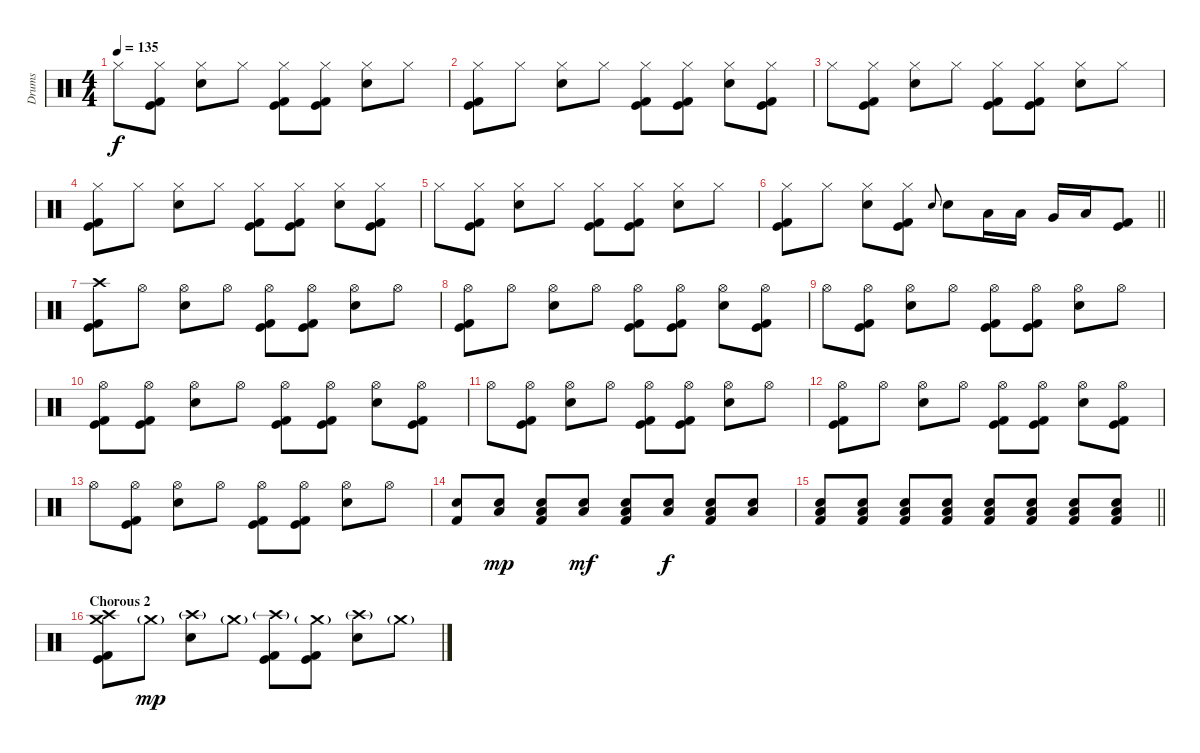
\track ("Drums" "Drums") {instrument percussion}
\staff {score}
\articulation defaults
\ts (4 4)
\tempo 135
\clef neutral
\ks c "Hi-Hat (closed)".8{dy f}
("Hi-Hat (closed)" "Kick (hit)" "Kick (hit) 2").8 ("Hi-Hat (closed)" "Electric Snare (hit)").8 "Hi-Hat (closed)".8 ("Hi-Hat (closed)" "Kick (hit)" "Kick (hit) 2").8 ("Hi-Hat (closed)" "Kick (hit)" "Kick (hit) 2").8 ("Hi-Hat (closed)" "Electric Snare (hit)").8 "Hi-Hat (closed)".8 |
("Hi-Hat (closed)" "Kick (hit)" "Kick (hit) 2").8 "Hi-Hat (closed)".8 ("Hi-Hat (closed)" "Electric Snare (hit)").8 "Hi-Hat (closed)".8 ("Hi-Hat (closed)" "Kick (hit)" "Kick (hit) 2").8 ("Hi-Hat (closed)" "Kick (hit)" "Kick (hit) 2").8 ("Hi-Hat (closed)" "Electric Snare (hit)").8 ("Hi-Hat (closed)" "Kick (hit)" "Kick (hit) 2").8 |
"Hi-Hat (closed)".8 ("Hi-Hat (closed)" "Kick (hit)" "Kick (hit) 2").8 ("Hi-Hat (closed)" "Electric Snare (hit)").8 "Hi-Hat (closed)".8 ("Hi-Hat (closed)" "Kick (hit)" "Kick (hit) 2").8 ("Hi-Hat (closed)" "Kick (hit)" "Kick (hit) 2").8 ("Hi-Hat (closed)" "Electric Snare (hit)").8 "Hi-Hat (closed)".8 |
("Hi-Hat (closed)" "Kick (hit)" "Kick (hit) 2").8 "Hi-Hat (closed)".8 ("Hi-Hat (closed)" "Electric Snare (hit)").8 "Hi-Hat (closed)".8 ("Hi-Hat (closed)" "Kick (hit)" "Kick (hit) 2").8 ("Hi-Hat (closed)" "Kick (hit)" "Kick (hit) 2").8 ("Hi-Hat (closed)" "Electric Snare (hit)").8 ("Hi-Hat (closed)" "Kick (hit)" "Kick (hit) 2").8 |
"Hi-Hat (closed)".8 ("Hi-Hat (closed)" "Kick (hit)" "Kick (hit) 2").8 ("Hi-Hat (closed)" "Electric Snare (hit)").8 "Hi-Hat (closed)".8 ("Hi-Hat (closed)" "Kick (hit)" "Kick (hit) 2").8 ("Hi-Hat (closed)" "Kick (hit)" "Kick (hit) 2").8 ("Hi-Hat (closed)" "Electric Snare (hit)").8 "Hi-Hat (closed)".8 |
\barLineRight lightlight
("Hi-Hat (closed)" "Kick (hit)" "Kick (hit) 2").8 "Hi-Hat (closed)".8 ("Hi-Hat (closed)" "Electric Snare (hit)").8 ("Hi-Hat (closed)" "Kick (hit)" "Kick (hit) 2").8 "Electric Snare (hit)".8{gr onbeat} "Electric Snare (hit)".8 "Low Tom (hit)".16 "Low Tom (hit)".16 "Very Low Tom (hit)".16 "Low Floor Tom (hit)".16 ("Kick (hit)" "Kick (hit) 2").8 |
\section ("" "")
("Crash high (hit)" "Kick (hit)" "Kick (hit) 2").8 "Hi-Hat (open)".8 ("Hi-Hat (open)" "Electric Snare (hit)").8 "Hi-Hat (open)".8 ("Hi-Hat (open)" "Kick (hit)" "Kick (hit) 2").8 ("Hi-Hat (open)" "Kick (hit)" "Kick (hit) 2").8 ("Hi-Hat (open)" "Electric Snare (hit)").8 "Hi-Hat (open)".8 |
("Hi-Hat (open)" "Kick (hit)" "Kick (hit) 2").8 "Hi-Hat (open)".8 ("Hi-Hat (open)" "Electric Snare (hit)").8 "Hi-Hat (open)".8 ("Hi-Hat (open)" "Kick (hit)" "Kick (hit) 2").8 ("Hi-Hat (open)" "Kick (hit)" "Kick (hit) 2").8 ("Hi-Hat (open)" "Electric Snare (hit)").8 ("Hi-Hat (open)" "Kick (hit)" "Kick (hit) 2").8 |
"Hi-Hat (open)".8 ("Hi-Hat (open)" "Kick (hit)" "Kick (hit) 2").8 ("Hi-Hat (open)" "Electric Snare (hit)").8 "Hi-Hat (open)".8 ("Hi-Hat (open)" "Kick (hit)" "Kick (hit) 2").8 ("Hi-Hat (open)" "Kick (hit)" "Kick (hit) 2").8 ("Hi-Hat (open)" "Electric Snare (hit)").8 "Hi-Hat (open)".8 |
("Hi-Hat (open)" "Kick (hit)" "Kick (hit) 2").8 ("Hi-Hat (open)" "Kick (hit)" "Kick (hit) 2").8 ("Hi-Hat (open)" "Electric Snare (hit)").8 "Hi-Hat (open)".8 ("Hi-Hat (open)" "Kick (hit)" "Kick (hit) 2").8 ("Hi-Hat (open)" "Kick (hit)" "Kick (hit) 2").8 ("Hi-Hat (open)" "Electric Snare (hit)").8 ("Hi-Hat (open)" "Kick (hit)" "Kick (hit) 2").8 |
"Hi-Hat (open)".8 ("Hi-Hat (open)" "Kick (hit)" "Kick (hit) 2").8 ("Hi-Hat (open)" "Electric Snare (hit)").8 "Hi-Hat (open)".8 ("Hi-Hat (open)" "Kick (hit)" "Kick (hit) 2").8 ("Hi-Hat (open)" "Kick (hit)" "Kick (hit) 2").8 ("Hi-Hat (open)" "Electric Snare (hit)").8 "Hi-Hat (open)".8 |
("Hi-Hat (open)" "Kick (hit)" "Kick (hit) 2").8 "Hi-Hat (open)".8 ("Hi-Hat (open)" "Electric Snare (hit)").8 "Hi-Hat (open)".8 ("Hi-Hat (open)" "Kick (hit)" "Kick (hit) 2").8 ("Hi-Hat (open)" "Kick (hit)" "Kick (hit) 2").8 ("Hi-Hat (open)" "Electric Snare (hit)").8 ("Hi-Hat (open)" "Kick (hit)" "Kick (hit) 2").8 |
"Hi-Hat (open)".8 ("Hi-Hat (open)" "Kick (hit)" "Kick (hit) 2").8 ("Hi-Hat (open)" "Electric Snare (hit)").8 "Hi-Hat (open)".8 ("Hi-Hat (open)" "Kick (hit)" "Kick (hit) 2").8 ("Hi-Hat (open)" "Kick (hit)" "Kick (hit) 2").8 ("Hi-Hat (open)" "Electric Snare (hit)").8 "Hi-Hat (open)".8 |
("Electric Snare (hit)" "Kick (hit) 2").8 ("Electric Snare (hit)" "Low Floor Tom (hit)").8{dy mp} ("Electric Snare (hit)" "Low Floor Tom (hit)" "Kick (hit) 2").8 ("Electric Snare (hit)" "Low Floor Tom (hit)").8{dy mf} ("Electric Snare (hit)" "Low Floor Tom (hit)" "Kick (hit) 2").8 ("Electric Snare (hit)" "Low Floor Tom (hit)").8{dy f} ("Electric Snare (hit)" "Low Floor Tom (hit)" "Kick (hit) 2").8 ("Electric Snare (hit)" "Low Floor Tom (hit)").8 |
\barLineRight lightlight
("Electric Snare (hit)" "Low Floor Tom (hit)" "Kick (hit) 2").8 ("Electric Snare (hit)" "Low Floor Tom (hit)" "Kick (hit) 2").8 ("Electric Snare (hit)" "Low Floor Tom (hit)" "Kick (hit) 2").8 ("Electric Snare (hit)" "Low Floor Tom (hit)" "Kick (hit) 2").8 ("Electric Snare (hit)" "Low Floor Tom (hit)" "Kick (hit) 2").8 ("Electric Snare (hit)" "Low Floor Tom (hit)" "Kick (hit) 2").8 ("Electric Snare (hit)" "Low Floor Tom (hit)" "Kick (hit) 2").8 ("Electric Snare (hit)" "Low Floor Tom (hit)" "Kick (hit) 2").8 |
\section ("" "Chorous 2")
("Crash high (hit)" "Crash medium (hit)" "Kick (hit)" "Kick (hit) 2").8 "Crash medium (hit)"{g}.8{dy mp} ("Crash high (hit)"{g} "Electric Snare (hit)").8 "Crash medium (hit)"{g}.8 ("Crash high (hit)"{g} "Kick (hit)" "Kick (hit) 2").8 ("Crash medium (hit)"{g} "Kick (hit)" "Kick (hit) 2").8 ("Crash high (hit)"{g} "Electric Snare (hit)").8 "Crash medium (hit)"{g}.8
